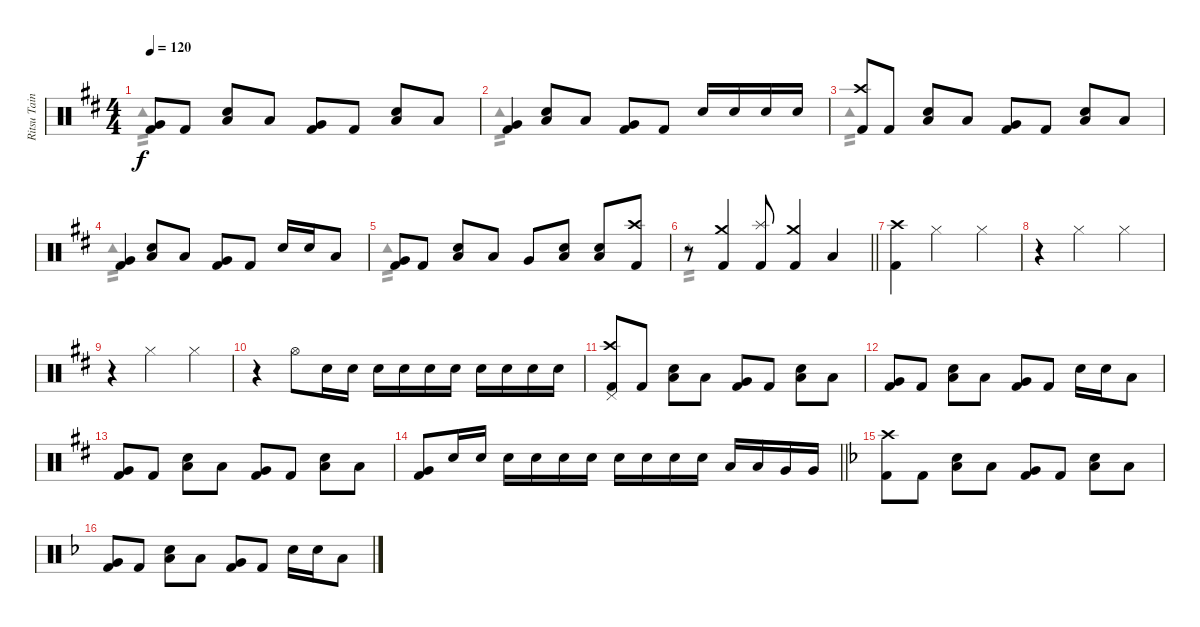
\track ("Ritsu Tainaka" "Ritsu Tain") {instrument percussion}
\staff {score}
\articulation defaults
\voice
\ts (4 4)
\tempo 120
\clef neutral
\ks d
("Very Low Tom (hit)" "Kick (hit) 2").8{dy f} "Kick (hit) 2".8 ("Snare (hit) 2" "Low Floor Tom (hit)").8 "Low Tom (hit)".8 ("Very Low Tom (hit)" "Kick (hit) 2").8 "Kick (hit) 2".8 ("Snare (hit) 2" "Low Floor Tom (hit)").8 "Low Tom (hit)".8 |
("Very Low Tom (hit)" "Kick (hit) 2").4 ("Snare (hit) 2" "Low Floor Tom (hit)").8 "Low Tom (hit)".8 ("Very Low Tom (hit)" "Kick (hit) 2").8 "Kick (hit) 2".8 "Snare (hit) 2".16 "Snare (hit) 2".16 "Snare (hit) 2".16 "Snare (hit) 2".16 |
("Crash high (hit)" "Kick (hit) 2").8 "Kick (hit) 2".8 ("Snare (hit) 2" "Low Floor Tom (hit)").8 "Low Tom (hit)".8 ("Very Low Tom (hit)" "Kick (hit) 2").8 "Kick (hit) 2".8 ("Snare (hit) 2" "Low Floor Tom (hit)").8 "Low Tom (hit)".8 |
("Very Low Tom (hit)" "Kick (hit) 2").4 ("Snare (hit) 2" "Low Floor Tom (hit)").8 "Low Tom (hit)".8 ("Very Low Tom (hit)" "Kick (hit) 2").8 "Kick (hit) 2".8 "Snare (hit) 2".16 "Snare (hit) 2".16 "Low Tom (hit)".8 |
("Very Low Tom (hit)" "Kick (hit) 2").8 "Kick (hit) 2".8 ("Snare (hit) 2" "Low Floor Tom (hit)").8 "Low Tom (hit)".8 "Very Low Tom (hit)".8 ("Snare (hit) 2" "Low Floor Tom (hit)").8 ("Snare (hit) 2" "Low Floor Tom (hit)").8 ("Crash high (hit)" "Kick (hit) 2").8 |
\barLineRight lightlight
r.8 ("Crash medium (hit)" "Kick (hit) 2").4 ("Splash (hit)" "Kick (hit) 2").8 ("Crash medium (hit)" "Kick (hit) 2").4 "Low Floor Tom (hit)".4 |
("Crash high (hit)" "Kick (hit) 2").4 "Hi-Hat (closed)".2 "Hi-Hat (closed)".4 |
r.4 "Hi-Hat (closed)".2 "Hi-Hat (closed)".4 |
r.4 "Hi-Hat (closed)".2 "Hi-Hat (closed)".4 |
r.4 "Hi-Hat (open)".8 "Snare (hit) 2".16 "Snare (hit) 2".16 "Snare (hit) 2".16 "Snare (hit) 2".16 "Snare (hit) 2".16 "Snare (hit) 2".16 "Snare (hit) 2".16 "Snare (hit) 2".16 "Snare (hit) 2".16 "Snare (hit) 2".16 |
("Crash high (hit)" "Pedal Hi-Hat (hit)" "Kick (hit) 2").8 "Kick (hit) 2".8 ("Snare (hit) 2" "Low Floor Tom (hit)").8 "Low Tom (hit)".8 ("Very Low Tom (hit)" "Kick (hit) 2").8 "Kick (hit) 2".8 ("Snare (hit) 2" "Low Floor Tom (hit)").8 "Low Tom (hit)".8 |
("Very Low Tom (hit)" "Kick (hit) 2").8 "Kick (hit) 2".8 ("Snare (hit) 2" "Low Floor Tom (hit)").8 "Low Tom (hit)".8 ("Very Low Tom (hit)" "Kick (hit) 2").8 "Kick (hit) 2".8 "Snare (hit) 2".16 "Snare (hit) 2".16 "Low Tom (hit)".8 |
("Very Low Tom (hit)" "Kick (hit) 2").8 "Kick (hit) 2".8 ("Snare (hit) 2" "Low Floor Tom (hit)").8 "Low Tom (hit)".8 ("Very Low Tom (hit)" "Kick (hit) 2").8 "Kick (hit) 2".8 ("Snare (hit) 2" "Low Floor Tom (hit)").8 "Low Tom (hit)".8 |
\barLineRight lightlight
("Very Low Tom (hit)" "Kick (hit) 2").8 "Snare (hit) 2".16 "Snare (hit) 2".16 "Snare (hit) 2".16 "Snare (hit) 2".16 "Snare (hit) 2".16 "Snare (hit) 2".16 "Snare (hit) 2".16 "Snare (hit) 2".16 "Snare (hit) 2".16 "Snare (hit) 2".16 "Low Tom (hit)".16 "Low Tom (hit)".16 "Very Low Tom (hit)".16 "Very Low Tom (hit)".16 |
\ks f
("Crash high (hit)" "Kick (hit) 2").8 "Kick (hit) 2".8 ("Snare (hit) 2" "Low Floor Tom (hit)").8 "Low Tom (hit)".8 ("Very Low Tom (hit)" "Kick (hit) 2").8 "Kick (hit) 2".8 ("Snare (hit) 2" "Low Floor Tom (hit)").8 "Low Tom (hit)".8 |
("Very Low Tom (hit)" "Kick (hit) 2").8 "Kick (hit) 2".8 ("Snare (hit) 2" "Low Floor Tom (hit)").8 "Low Tom (hit)".8 ("Very Low Tom (hit)" "Kick (hit) 2").8 "Kick (hit) 2".8 "Snare (hit) 2".16 "Snare (hit) 2".16 "Low Tom (hit)".8
\voice
\clef neutral
\ottava regular
\simile none
\ks d "Tambourine (hit)".1{tp 2 dy f}
|
"Tambourine (hit)".1{tp 2} |
"Tambourine (hit)".1{tp 2} |
"Tambourine (hit)".1{tp 2} |
"Tambourine (hit)".1{tp 2} |
\barLineRight lightlight "Tambourine (hit)".1{tp 2}
|
|
|
|
|
|
|
|
\barLineRight lightlight
|
\ks f
|
